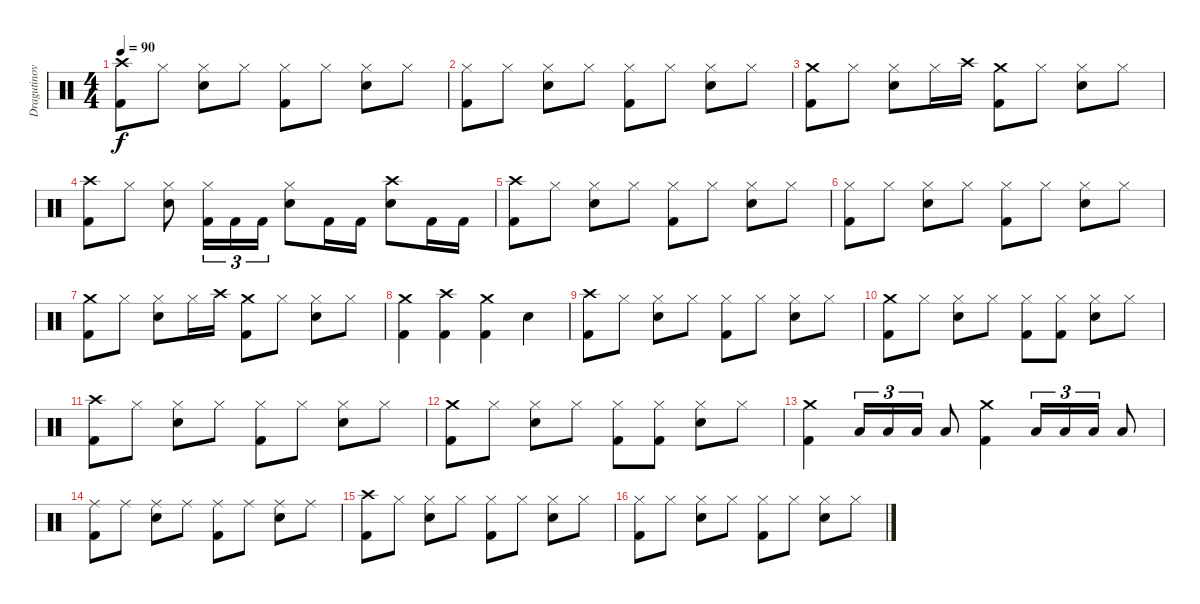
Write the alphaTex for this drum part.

\track ("Dragutinovic" "Dragutinov") {instrument percussion}
\staff {score}
\articulation defaults
\ts (4 4)
\tempo 90
\clef neutral
\ks c
("Crash high (hit)" "Kick (hit) 2").8{dy f} "Hi-Hat (closed)".8 ("Hi-Hat (closed)" "Electric Snare (hit)").8 "Hi-Hat (closed)".8 ("Hi-Hat (closed)" "Kick (hit) 2").8 "Hi-Hat (closed)".8 ("Hi-Hat (closed)" "Electric Snare (hit)").8 "Hi-Hat (closed)".8 |
("Hi-Hat (closed)" "Kick (hit) 2").8 "Hi-Hat (closed)".8 ("Hi-Hat (closed)" "Electric Snare (hit)").8 "Hi-Hat (closed)".8 ("Hi-Hat (closed)" "Kick (hit) 2").8 "Hi-Hat (closed)".8 ("Hi-Hat (closed)" "Electric Snare (hit)").8 "Hi-Hat (closed)".8 |
("Crash medium (hit)" "Kick (hit) 2").8 "Hi-Hat (closed)".8 ("Hi-Hat (closed)" "Electric Snare (hit)").8 "Hi-Hat (closed)".16 "Crash high (hit)".16 ("Crash medium (hit)" "Kick (hit) 2").8 "Hi-Hat (closed)".8 ("Hi-Hat (closed)" "Electric Snare (hit)").8 "Hi-Hat (closed)".8 |
("Crash high (hit)" "Kick (hit) 2").8 "Hi-Hat (closed)".8 ("Hi-Hat (closed)" "Electric Snare (hit)").8 ("Hi-Hat (closed)" "Kick (hit) 2").16{tu (3 2)} "Kick (hit) 2".16{tu (3 2)} "Kick (hit) 2".16{tu (3 2)} ("Hi-Hat (closed)" "Electric Snare (hit)").8 "Kick (hit) 2".16 "Kick (hit) 2".16 ("Crash high (hit)" "Electric Snare (hit)").8 "Kick (hit) 2".16 "Kick (hit) 2".16 |
("Crash high (hit)" "Kick (hit) 2").8 "Hi-Hat (closed)".8 ("Hi-Hat (closed)" "Electric Snare (hit)").8 "Hi-Hat (closed)".8 ("Hi-Hat (closed)" "Kick (hit) 2").8 "Hi-Hat (closed)".8 ("Hi-Hat (closed)" "Electric Snare (hit)").8 "Hi-Hat (closed)".8 |
("Hi-Hat (closed)" "Kick (hit) 2").8 "Hi-Hat (closed)".8 ("Hi-Hat (closed)" "Electric Snare (hit)").8 "Hi-Hat (closed)".8 ("Hi-Hat (closed)" "Kick (hit) 2").8 "Hi-Hat (closed)".8 ("Hi-Hat (closed)" "Electric Snare (hit)").8 "Hi-Hat (closed)".8 |
("Crash medium (hit)" "Kick (hit) 2").8 "Hi-Hat (closed)".8 ("Hi-Hat (closed)" "Electric Snare (hit)").8 "Hi-Hat (closed)".16 "Crash high (hit)".16 ("Crash medium (hit)" "Kick (hit) 2").8 "Hi-Hat (closed)".8 ("Hi-Hat (closed)" "Electric Snare (hit)").8 "Hi-Hat (closed)".8 |
("Crash medium (hit)" "Kick (hit) 2").4 ("Crash high (hit)" "Kick (hit) 2").4 ("Crash medium (hit)" "Kick (hit) 2").4 "Electric Snare (hit)".4 |
("Crash high (hit)" "Kick (hit) 2").8 "Hi-Hat (closed)".8 ("Hi-Hat (closed)" "Electric Snare (hit)").8 "Hi-Hat (closed)".8 ("Hi-Hat (closed)" "Kick (hit) 2").8 "Hi-Hat (closed)".8 ("Hi-Hat (closed)" "Electric Snare (hit)").8 "Hi-Hat (closed)".8 |
("Crash medium (hit)" "Kick (hit) 2").8 "Hi-Hat (closed)".8 ("Hi-Hat (closed)" "Electric Snare (hit)").8 "Hi-Hat (closed)".8 ("Hi-Hat (closed)" "Kick (hit) 2").8 ("Hi-Hat (closed)" "Kick (hit) 2").8 ("Hi-Hat (closed)" "Electric Snare (hit)").8 "Hi-Hat (closed)".8 |
("Crash high (hit)" "Kick (hit) 2").8 "Hi-Hat (closed)".8 ("Hi-Hat (closed)" "Electric Snare (hit)").8 "Hi-Hat (closed)".8 ("Hi-Hat (closed)" "Kick (hit) 2").8 "Hi-Hat (closed)".8 ("Hi-Hat (closed)" "Electric Snare (hit)").8 "Hi-Hat (closed)".8 |
("Crash medium (hit)" "Kick (hit) 2").8 "Hi-Hat (closed)".8 ("Hi-Hat (closed)" "Electric Snare (hit)").8 "Hi-Hat (closed)".8 ("Hi-Hat (closed)" "Kick (hit) 2").8 ("Hi-Hat (closed)" "Kick (hit) 2").8 ("Hi-Hat (closed)" "Electric Snare (hit)").8 "Hi-Hat (closed)".8 |
("Crash medium (hit)" "Kick (hit) 2").4 "Low Tom (hit)".16{tu (3 2)} "Low Tom (hit)".16{tu (3 2)} "Low Tom (hit)".16{tu (3 2)} "Low Tom (hit)".8 ("Crash medium (hit)" "Kick (hit) 2").4 "Low Tom (hit)".16{tu (3 2)} "Low Tom (hit)".16{tu (3 2)} "Low Tom (hit)".16{tu (3 2)} "Low Tom (hit)".8 |
("Ride (middle)" "Kick (hit) 2").8 "Ride (middle)".8 ("Ride (middle)" "Electric Snare (hit)").8 "Ride (middle)".8 ("Ride (middle)" "Kick (hit) 2").8 "Ride (middle)".8 ("Ride (middle)" "Electric Snare (hit)").8 "Ride (middle)".8 |
("Crash high (hit)" "Kick (hit) 2").8 "Hi-Hat (closed)".8 ("Hi-Hat (closed)" "Electric Snare (hit)").8 "Hi-Hat (closed)".8 ("Hi-Hat (closed)" "Kick (hit) 2").8 "Hi-Hat (closed)".8 ("Hi-Hat (closed)" "Electric Snare (hit)").8 "Hi-Hat (closed)".8 |
("Hi-Hat (closed)" "Kick (hit) 2").8 "Hi-Hat (closed)".8 ("Hi-Hat (closed)" "Electric Snare (hit)").8 "Hi-Hat (closed)".8 ("Hi-Hat (closed)" "Kick (hit) 2").8 "Hi-Hat (closed)".8 ("Hi-Hat (closed)" "Electric Snare (hit)").8 "Hi-Hat (closed)".8
